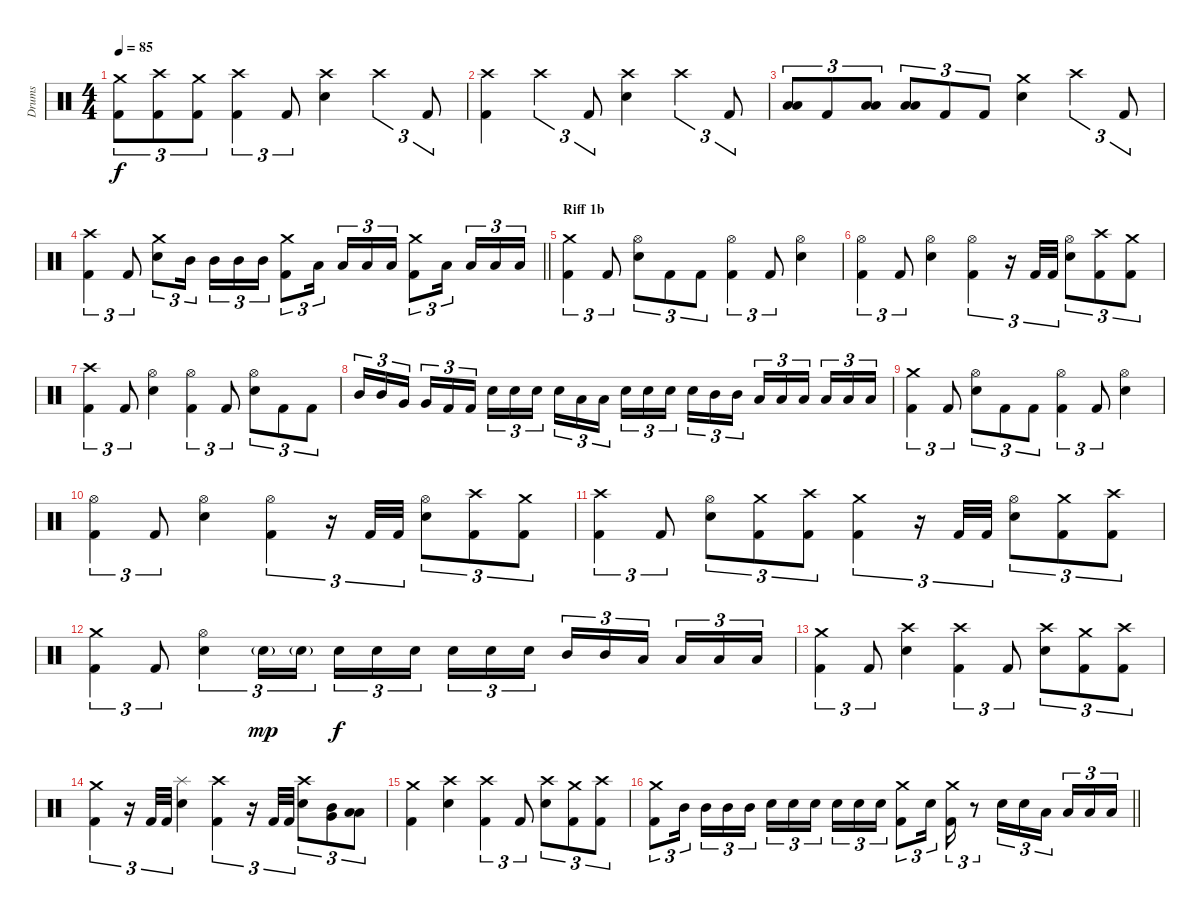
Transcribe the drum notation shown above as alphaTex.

\track ("Drums" "Drums") {instrument percussion}
\staff {score}
\articulation defaults
\ts (4 4)
\tempo 85
\clef neutral
\ks c
("Crash medium (hit)" "Kick (hit) 2").8{tu (3 2) dy f} ("Crash high (hit)" "Kick (hit) 2").8{tu (3 2)} ("Crash medium (hit)" "Kick (hit) 2").8{tu (3 2)} ("Crash high (hit)" "Kick (hit) 2").4{tu (3 2)} "Kick (hit) 2".8{tu (3 2)} ("Electric Snare (hit)" "Crash high (hit)").4 "Crash high (hit)".4{tu (3 2)} "Kick (hit) 2".8{tu (3 2)} |
("Crash high (hit)" "Kick (hit) 2").4 "Crash high (hit)".4{tu (3 2)} "Kick (hit) 2".8{tu (3 2)} ("Crash high (hit)" "Electric Snare (hit)").4 "Crash high (hit)".4{tu (3 2)} "Kick (hit) 2".8{tu (3 2)} |
("Low Tom (hit)" "Low Floor Tom (hit)").8{tu (3 2)} "Kick (hit) 2".8{tu (3 2)} ("Low Tom (hit)" "Low Floor Tom (hit)").8{tu (3 2)} ("Low Tom (hit)" "Low Floor Tom (hit)").8{tu (3 2)} "Kick (hit) 2".8{tu (3 2)} "Kick (hit) 2".8{tu (3 2)} ("Crash medium (hit)" "Electric Snare (hit)").4 "Crash high (hit)".4{tu (3 2)} "Kick (hit) 2".8{tu (3 2)} |
\barLineRight lightlight
("Crash high (hit)" "Kick (hit) 2").4{tu (3 2)} "Kick (hit) 2".8{tu (3 2)} ("Crash medium (hit)" "Electric Snare (hit)").8{tu (3 2)} "Mid Tom (hit)".16{tu (3 2) beam splitsecondary} "Mid Tom (hit)".16{tu (3 2)} "Mid Tom (hit)".16{tu (3 2)} "Mid Tom (hit)".16{tu (3 2)} ("Kick (hit) 2" "Crash medium (hit)").8{tu (3 2)} "Low Tom (hit)".16{tu (3 2) beam splitsecondary} "Low Tom (hit)".16{tu (3 2)} "Low Tom (hit)".16{tu (3 2)} "Low Tom (hit)".16{tu (3 2)} ("Kick (hit) 2" "Crash medium (hit)").8{tu (3 2)} "Low Floor Tom (hit)".16{tu (3 2) beam splitsecondary} "Low Floor Tom (hit)".16{tu (3 2)} "Low Floor Tom (hit)".16{tu (3 2)} "Low Floor Tom (hit)".16{tu (3 2)} |
\section ("" "Riff 1b")
("Crash medium (hit)" "Kick (hit) 2").4{tu (3 2)} "Kick (hit) 2".8{tu (3 2)} ("Electric Snare (hit)" "Hi-Hat (open)").8{tu (3 2)} "Kick (hit) 2".8{tu (3 2)} "Kick (hit) 2".8{tu (3 2)} ("Kick (hit) 2" "Hi-Hat (open)").4{tu (3 2)} "Kick (hit) 2".8{tu (3 2)} ("Electric Snare (hit)" "Hi-Hat (open)").4 |
("Kick (hit) 2" "Hi-Hat (open)").4{tu (3 2)} "Kick (hit) 2".8{tu (3 2)} ("Electric Snare (hit)" "Hi-Hat (open)").4 ("Kick (hit) 2" "Hi-Hat (open)").4{tu (3 2)} r.16{tu (3 2)} "Kick (hit) 2".32{tu (3 2)} "Kick (hit) 2".32{tu (3 2)} ("Electric Snare (hit)" "Hi-Hat (open)").8{tu (3 2)} ("Kick (hit) 2" "Crash high (hit)").8{tu (3 2)} ("Kick (hit) 2" "Crash medium (hit)").8{tu (3 2)} |
("Kick (hit) 2" "Crash high (hit)").4{tu (3 2)} "Kick (hit) 2".8{tu (3 2)} ("Electric Snare (hit)" "Hi-Hat (open)").4 ("Hi-Hat (open)" "Kick (hit) 2").4{tu (3 2)} "Kick (hit) 2".8{tu (3 2)} ("Electric Snare (hit)" "Hi-Hat (open)").8{tu (3 2)} "Kick (hit) 2".8{tu (3 2)} "Kick (hit) 2".8{tu (3 2)} |
"Mid Tom (hit)".16{tu (3 2)} "Mid Tom (hit)".16{tu (3 2)} "Very Low Tom (hit)".16{tu (3 2) beam splitsecondary} "Very Low Tom (hit)".16{tu (3 2)} "Kick (hit) 2".16{tu (3 2)} "Kick (hit) 2".16{tu (3 2)} "Electric Snare (hit)".16{tu (3 2)} "Electric Snare (hit)".16{tu (3 2)} "Electric Snare (hit)".16{tu (3 2) beam splitsecondary} "Electric Snare (hit)".16{tu (3 2)} "Low Tom (hit)".16{tu (3 2)} "Low Floor Tom (hit)".16{tu (3 2)} "Electric Snare (hit)".16{tu (3 2)} "Electric Snare (hit)".16{tu (3 2)} "Electric Snare (hit)".16{tu (3 2) beam splitsecondary} "Electric Snare (hit)".16{tu (3 2)} "Mid Tom (hit)".16{tu (3 2)} "Mid Tom (hit)".16{tu (3 2)} "Low Tom (hit)".16{tu (3 2)} "Low Tom (hit)".16{tu (3 2)} "Low Tom (hit)".16{tu (3 2) beam splitsecondary} "Low Tom (hit)".16{tu (3 2)} "Low Floor Tom (hit)".16{tu (3 2)} "Low Floor Tom (hit)".16{tu (3 2)} |
("Crash medium (hit)" "Kick (hit) 2").4{tu (3 2)} "Kick (hit) 2".8{tu (3 2)} ("Electric Snare (hit)" "Hi-Hat (open)").8{tu (3 2)} "Kick (hit) 2".8{tu (3 2)} "Kick (hit) 2".8{tu (3 2)} ("Kick (hit) 2" "Hi-Hat (open)").4{tu (3 2)} "Kick (hit) 2".8{tu (3 2)} ("Electric Snare (hit)" "Hi-Hat (open)").4 |
("Kick (hit) 2" "Hi-Hat (open)").4{tu (3 2)} "Kick (hit) 2".8{tu (3 2)} ("Electric Snare (hit)" "Hi-Hat (open)").4 ("Kick (hit) 2" "Hi-Hat (open)").4{tu (3 2)} r.16{tu (3 2)} "Kick (hit) 2".32{tu (3 2)} "Kick (hit) 2".32{tu (3 2)} ("Electric Snare (hit)" "Hi-Hat (open)").8{tu (3 2)} ("Kick (hit) 2" "Crash high (hit)").8{tu (3 2)} ("Kick (hit) 2" "Crash medium (hit)").8{tu (3 2)} |
("Kick (hit) 2" "Crash high (hit)").4{tu (3 2)} "Kick (hit) 2".8{tu (3 2)} ("Electric Snare (hit)" "Hi-Hat (open)").8{tu (3 2)} ("Crash medium (hit)" "Kick (hit) 2").8{tu (3 2)} ("Crash high (hit)" "Kick (hit) 2").8{tu (3 2)} ("Kick (hit) 2" "Crash medium (hit)").4{tu (3 2)} r.16{tu (3 2)} "Kick (hit) 2".32{tu (3 2)} "Kick (hit) 2".32{tu (3 2)} ("Electric Snare (hit)" "Hi-Hat (open)").8{tu (3 2)} ("Crash medium (hit)" "Kick (hit) 2").8{tu (3 2)} ("Crash high (hit)" "Kick (hit) 2").8{tu (3 2)} |
("Kick (hit) 2" "Crash medium (hit)").4{tu (3 2)} "Kick (hit) 2".8{tu (3 2)} ("Hi-Hat (open)" "Electric Snare (hit)").4{tu (3 2)} "Electric Snare (hit)"{g}.16{tu (3 2) dy mp} "Electric Snare (hit)"{g}.16{tu (3 2)} "Electric Snare (hit)".16{tu (3 2) dy f} "Electric Snare (hit)".16{tu (3 2)} "Electric Snare (hit)".16{tu (3 2) beam splitsecondary} "Electric Snare (hit)".16{tu (3 2)} "Electric Snare (hit)".16{tu (3 2)} "Electric Snare (hit)".16{tu (3 2)} "Mid Tom (hit)".16{tu (3 2)} "Mid Tom (hit)".16{tu (3 2)} "Low Tom (hit)".16{tu (3 2) beam splitsecondary} "Low Tom (hit)".16{tu (3 2)} "Low Floor Tom (hit)".16{tu (3 2)} "Low Floor Tom (hit)".16{tu (3 2)} |
("Crash medium (hit)" "Kick (hit) 2").4{tu (3 2)} "Kick (hit) 2".8{tu (3 2)} ("Electric Snare (hit)" "Crash high (hit)").4 ("Kick (hit) 2" "Crash high (hit)").4{tu (3 2)} "Kick (hit) 2".8{tu (3 2)} ("Electric Snare (hit)" "Crash high (hit)").8{tu (3 2)} ("Kick (hit) 2" "Crash medium (hit)").8{tu (3 2)} ("Kick (hit) 2" "Crash high (hit)").8{tu (3 2)} |
("Crash medium (hit)" "Kick (hit) 2").4{tu (3 2)} r.16{tu (3 2)} "Kick (hit) 2".32{tu (3 2)} "Kick (hit) 2".32{tu (3 2)} ("Electric Snare (hit)" "Splash (hit)").4 ("Crash high (hit)" "Kick (hit) 2").4{tu (3 2)} r.16{tu (3 2)} "Kick (hit) 2".32{tu (3 2)} "Kick (hit) 2".32{tu (3 2)} ("Electric Snare (hit)" "Crash high (hit)").8{tu (3 2)} ("Mid Tom (hit)" "Very Low Tom (hit)").8{tu (3 2)} ("Low Tom (hit)" "Low Floor Tom (hit)").8{tu (3 2)} |
("Crash medium (hit)" "Kick (hit) 2").4 ("Electric Snare (hit)" "Crash high (hit)").4 ("Crash high (hit)" "Kick (hit) 2").4{tu (3 2)} "Kick (hit) 2".8{tu (3 2)} ("Electric Snare (hit)" "Crash high (hit)").8{tu (3 2)} ("Kick (hit) 2" "Crash medium (hit)").8{tu (3 2)} ("Kick (hit) 2" "Crash high (hit)").8{tu (3 2)} |
\barLineRight lightlight
("Crash medium (hit)" "Kick (hit) 2").8{tu (3 2)} "Mid Tom (hit)".16{tu (3 2) beam splitsecondary} "Mid Tom (hit)".16{tu (3 2)} "Mid Tom (hit)".16{tu (3 2)} "Mid Tom (hit)".16{tu (3 2)} "Electric Snare (hit)".16{tu (3 2)} "Electric Snare (hit)".16{tu (3 2)} "Electric Snare (hit)".16{tu (3 2) beam splitsecondary} "Electric Snare (hit)".16{tu (3 2)} "Electric Snare (hit)".16{tu (3 2)} "Electric Snare (hit)".16{tu (3 2)} ("Crash medium (hit)" "Kick (hit) 2").8{tu (3 2)} "Electric Snare (hit)".16{tu (3 2)} ("Kick (hit) 2" "Crash medium (hit)").16{tu (3 2)} r.8{tu (3 2)} "Electric Snare (hit)".16{tu (3 2)} "Electric Snare (hit)".16{tu (3 2)} "Low Tom (hit)".16{tu (3 2) beam splitsecondary} "Low Tom (hit)".16{tu (3 2)} "Low Floor Tom (hit)".16{tu (3 2)} "Low Floor Tom (hit)".16{tu (3 2)}
